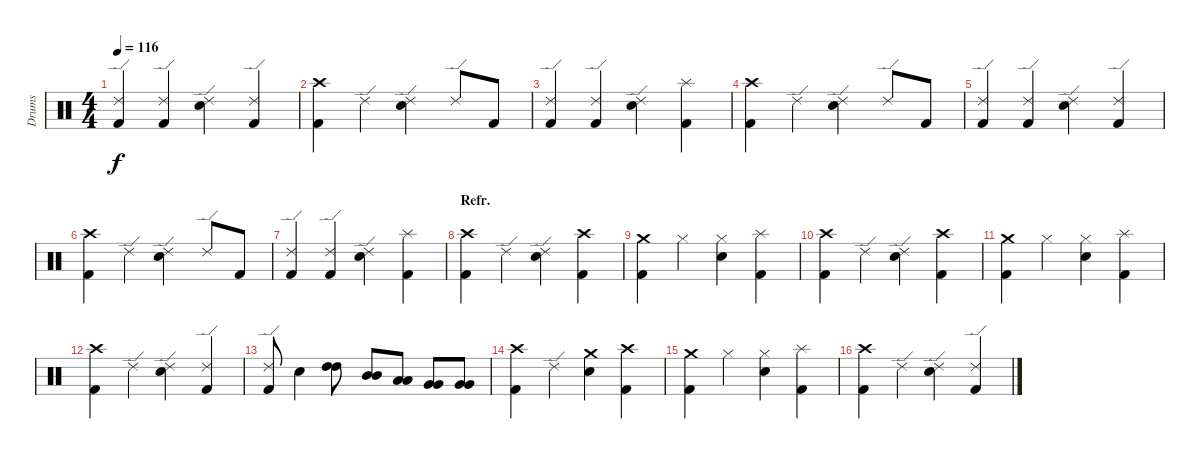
\track ("Drums" "Drums") {instrument percussion}
\staff {score}
\articulation defaults
\ts (4 4)
\tempo 116
\clef neutral
\ks c
("Ride (edge) 2" "Kick (hit) 2").4{dy f} ("Ride (edge) 2" "Kick (hit) 2").4 ("Ride (edge) 2" "Snare (hit) 2").4 ("Ride (edge) 2" "Kick (hit) 2").4 |
("Crash high (hit)" "Kick (hit) 2").4 "Ride (edge) 2".4 ("Ride (edge) 2" "Snare (hit) 2").4 "Ride (edge) 2".8 "Kick (hit) 2".8 |
("Ride (edge) 2" "Kick (hit) 2").4 ("Ride (edge) 2" "Kick (hit) 2").4 ("Ride (edge) 2" "Snare (hit) 2").4 ("Splash (hit)" "Kick (hit) 2").4 |
("Crash high (hit)" "Kick (hit) 2").4 "Ride (edge) 2".4 ("Ride (edge) 2" "Snare (hit) 2").4 "Ride (edge) 2".8 "Kick (hit) 2".8 |
("Ride (edge) 2" "Kick (hit) 2").4 ("Ride (edge) 2" "Kick (hit) 2").4 ("Ride (edge) 2" "Snare (hit) 2").4 ("Ride (edge) 2" "Kick (hit) 2").4 |
("Crash high (hit)" "Kick (hit) 2").4 "Ride (edge) 2".4 ("Ride (edge) 2" "Snare (hit) 2").4 "Ride (edge) 2".8 "Kick (hit) 2".8 |
("Ride (edge) 2" "Kick (hit) 2").4 ("Ride (edge) 2" "Kick (hit) 2").4 ("Ride (edge) 2" "Snare (hit) 2").4 ("Splash (hit)" "Kick (hit) 2").4 |
\section ("" "Refr.")
("Crash high (hit)" "Kick (hit) 2").4 "Ride (edge) 2".4 ("Ride (edge) 2" "Snare (hit) 2").4 ("Crash high (hit)" "Kick (hit) 2").4 |
("Crash medium (hit)" "Kick (hit) 2").4 "Hi-Hat (closed)".4 ("Hi-Hat (closed)" "Snare (hit) 2").4 ("Splash (hit)" "Kick (hit) 2").4 |
("Crash high (hit)" "Kick (hit) 2").4 "Ride (edge) 2".4 ("Ride (edge) 2" "Snare (hit) 2").4 ("Crash high (hit)" "Kick (hit) 2").4 |
("Crash medium (hit)" "Kick (hit) 2").4 "Hi-Hat (closed)".4 ("Hi-Hat (closed)" "Snare (hit) 2").4 ("Splash (hit)" "Kick (hit) 2").4 |
("Crash high (hit)" "Kick (hit) 2").4 "Ride (edge) 2".4 ("Ride (edge) 2" "Snare (hit) 2").4 ("Ride (edge) 2" "Kick (hit) 2").4 |
("Ride (edge) 2" "Kick (hit) 2").8 "Snare (hit) 2".4 ("High Tom (hit)" "High Tom (hit)").8 ("Mid Tom (hit)" "Mid Tom (hit)").8 ("Low Tom (hit)" "Low Tom (hit)").8 ("Very Low Tom (hit)" "Very Low Tom (hit)").8 ("Very Low Tom (hit)" "Very Low Tom (hit)").8 |
("Crash high (hit)" "Kick (hit) 2").4 "Ride (edge) 2".4 ("Crash medium (hit)" "Snare (hit) 2").4 ("Crash high (hit)" "Kick (hit) 2").4 |
("Crash medium (hit)" "Kick (hit) 2").4 "Hi-Hat (closed)".4 ("Hi-Hat (closed)" "Snare (hit) 2").4 ("Splash (hit)" "Kick (hit) 2").4 |
("Crash high (hit)" "Kick (hit) 2").4 "Ride (edge) 2".4 ("Ride (edge) 2" "Snare (hit) 2").4 ("Ride (edge) 2" "Kick (hit) 2").4
